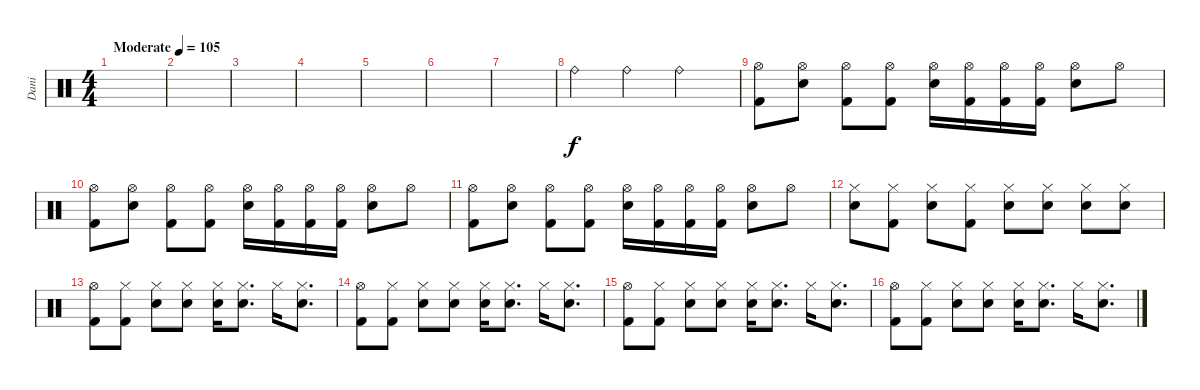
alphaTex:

\track ("Dani" "Dani") {instrument percussion}
\staff {score}
\articulation defaults
\ts (4 4)
\tempo (105 "Moderate")
\clef neutral
\ks c
|
|
|
|
|
|
|
"Ride (bell)".4 "Ride (bell)".4 "Ride (bell)".2 |
("Kick (hit) 2" "Hi-Hat (open)").8 ("Snare (hit) 2" "Hi-Hat (open)").8 ("Kick (hit) 2" "Hi-Hat (open)").8 ("Kick (hit) 2" "Hi-Hat (open)").8 ("Snare (hit) 2" "Hi-Hat (open)").16 ("Kick (hit) 2" "Hi-Hat (open)").16 ("Kick (hit) 2" "Hi-Hat (open)").16 ("Kick (hit) 2" "Hi-Hat (open)").16 ("Snare (hit) 2" "Hi-Hat (open)").8 "Hi-Hat (open)".8 |
("Kick (hit) 2" "Hi-Hat (open)").8 ("Snare (hit) 2" "Hi-Hat (open)").8 ("Kick (hit) 2" "Hi-Hat (open)").8 ("Kick (hit) 2" "Hi-Hat (open)").8 ("Snare (hit) 2" "Hi-Hat (open)").16 ("Kick (hit) 2" "Hi-Hat (open)").16 ("Kick (hit) 2" "Hi-Hat (open)").16 ("Kick (hit) 2" "Hi-Hat (open)").16 ("Snare (hit) 2" "Hi-Hat (open)").8 "Hi-Hat (open)".8 |
("Kick (hit) 2" "Hi-Hat (open)").8 ("Snare (hit) 2" "Hi-Hat (open)").8 ("Kick (hit) 2" "Hi-Hat (open)").8 ("Kick (hit) 2" "Hi-Hat (open)").8 ("Snare (hit) 2" "Hi-Hat (open)").16 ("Kick (hit) 2" "Hi-Hat (open)").16 ("Kick (hit) 2" "Hi-Hat (open)").16 ("Kick (hit) 2" "Hi-Hat (open)").16 ("Snare (hit) 2" "Hi-Hat (open)").8 "Hi-Hat (open)".8 |
("Snare (hit) 2" "Hi-Hat (closed)").8 ("Kick (hit) 2" "Hi-Hat (closed)").8 ("Snare (hit) 2" "Hi-Hat (closed)").8 ("Kick (hit) 2" "Hi-Hat (closed)").8 ("Snare (hit) 2" "Hi-Hat (closed)").8 ("Snare (hit) 2" "Hi-Hat (closed)").8 ("Snare (hit) 2" "Hi-Hat (closed)").8 ("Snare (hit) 2" "Hi-Hat (closed)").8 |
("Kick (hit) 2" "Hi-Hat (open)").8 ("Kick (hit) 2" "Hi-Hat (closed)").8 ("Snare (hit) 2" "Hi-Hat (closed)").8 ("Snare (hit) 2" "Hi-Hat (closed)").8 ("Snare (hit) 2" "Hi-Hat (closed)").16 ("Snare (hit) 2" "Hi-Hat (closed)").8{d} "Hi-Hat (closed)".16 ("Snare (hit) 2" "Hi-Hat (closed)").8{d} |
("Kick (hit) 2" "Hi-Hat (open)").8 ("Kick (hit) 2" "Hi-Hat (closed)").8 ("Snare (hit) 2" "Hi-Hat (closed)").8 ("Snare (hit) 2" "Hi-Hat (closed)").8 ("Snare (hit) 2" "Hi-Hat (closed)").16 ("Snare (hit) 2" "Hi-Hat (closed)").8{d} "Hi-Hat (closed)".16 ("Snare (hit) 2" "Hi-Hat (closed)").8{d} |
("Kick (hit) 2" "Hi-Hat (open)").8 ("Kick (hit) 2" "Hi-Hat (closed)").8 ("Snare (hit) 2" "Hi-Hat (closed)").8 ("Snare (hit) 2" "Hi-Hat (closed)").8 ("Snare (hit) 2" "Hi-Hat (closed)").16 ("Snare (hit) 2" "Hi-Hat (closed)").8{d} "Hi-Hat (closed)".16 ("Snare (hit) 2" "Hi-Hat (closed)").8{d} |
("Kick (hit) 2" "Hi-Hat (open)").8 ("Kick (hit) 2" "Hi-Hat (closed)").8 ("Snare (hit) 2" "Hi-Hat (closed)").8 ("Snare (hit) 2" "Hi-Hat (closed)").8 ("Snare (hit) 2" "Hi-Hat (closed)").16 ("Snare (hit) 2" "Hi-Hat (closed)").8{d} "Hi-Hat (closed)".16 ("Snare (hit) 2" "Hi-Hat (closed)").8{d}
